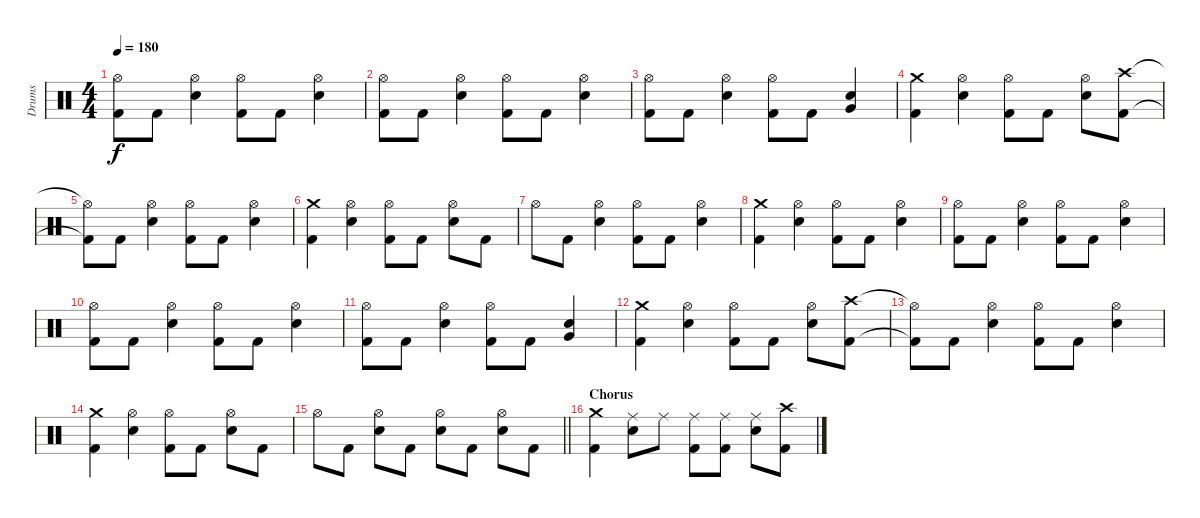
\track ("Drums" "Drums") {instrument percussion}
\staff {score}
\articulation defaults
\ts (4 4)
\tempo 180
\clef neutral
\ks c
("Hi-Hat (open)" "Kick (hit) 2").8{dy f} "Kick (hit) 2".8 ("Hi-Hat (open)" "Electric Snare (hit)").4 ("Hi-Hat (open)" "Kick (hit) 2").8 "Kick (hit) 2".8 ("Hi-Hat (open)" "Electric Snare (hit)").4 |
("Hi-Hat (open)" "Kick (hit) 2").8 "Kick (hit) 2".8 ("Hi-Hat (open)" "Electric Snare (hit)").4 ("Hi-Hat (open)" "Kick (hit) 2").8 "Kick (hit) 2".8 ("Hi-Hat (open)" "Electric Snare (hit)").4 |
("Hi-Hat (open)" "Kick (hit) 2").8 "Kick (hit) 2".8 ("Hi-Hat (open)" "Electric Snare (hit)").4 ("Hi-Hat (open)" "Kick (hit) 2").8 "Kick (hit) 2".8 ("Very Low Tom (hit)" "Electric Snare (hit)").4 |
("Crash medium (hit)" "Kick (hit) 2").4 ("Hi-Hat (open)" "Electric Snare (hit)").4 ("Hi-Hat (open)" "Kick (hit) 2").8 "Kick (hit) 2".8 ("Hi-Hat (open)" "Electric Snare (hit)").8 ("Crash high (hit)" "Kick (hit) 2").8 |
("Hi-Hat (open)"{t} "Kick (hit) 2"{t}).8 "Kick (hit) 2".8 ("Hi-Hat (open)" "Electric Snare (hit)").4 ("Hi-Hat (open)" "Kick (hit) 2").8 "Kick (hit) 2".8 ("Hi-Hat (open)" "Electric Snare (hit)").4 |
("Crash medium (hit)" "Kick (hit) 2").4 ("Hi-Hat (open)" "Electric Snare (hit)").4 ("Hi-Hat (open)" "Kick (hit) 2").8 "Kick (hit) 2".8 ("Hi-Hat (open)" "Electric Snare (hit)").8 "Kick (hit) 2".8 |
"Hi-Hat (open)".8 "Kick (hit) 2".8 ("Hi-Hat (open)" "Electric Snare (hit)").4 ("Hi-Hat (open)" "Kick (hit) 2").8 "Kick (hit) 2".8 ("Hi-Hat (open)" "Electric Snare (hit)").4 |
("Crash medium (hit)" "Kick (hit) 2").4 ("Hi-Hat (open)" "Electric Snare (hit)").4 ("Hi-Hat (open)" "Kick (hit) 2").8 "Kick (hit) 2".8 ("Hi-Hat (open)" "Electric Snare (hit)").4 |
("Hi-Hat (open)" "Kick (hit) 2").8 "Kick (hit) 2".8 ("Hi-Hat (open)" "Electric Snare (hit)").4 ("Hi-Hat (open)" "Kick (hit) 2").8 "Kick (hit) 2".8 ("Hi-Hat (open)" "Electric Snare (hit)").4 |
("Hi-Hat (open)" "Kick (hit) 2").8 "Kick (hit) 2".8 ("Hi-Hat (open)" "Electric Snare (hit)").4 ("Hi-Hat (open)" "Kick (hit) 2").8 "Kick (hit) 2".8 ("Hi-Hat (open)" "Electric Snare (hit)").4 |
("Hi-Hat (open)" "Kick (hit) 2").8 "Kick (hit) 2".8 ("Hi-Hat (open)" "Electric Snare (hit)").4 ("Hi-Hat (open)" "Kick (hit) 2").8 "Kick (hit) 2".8 ("Very Low Tom (hit)" "Electric Snare (hit)").4 |
("Crash medium (hit)" "Kick (hit) 2").4 ("Hi-Hat (open)" "Electric Snare (hit)").4 ("Hi-Hat (open)" "Kick (hit) 2").8 "Kick (hit) 2".8 ("Hi-Hat (open)" "Electric Snare (hit)").8 ("Crash high (hit)" "Kick (hit) 2").8 |
("Hi-Hat (open)"{t} "Kick (hit) 2"{t}).8 "Kick (hit) 2".8 ("Hi-Hat (open)" "Electric Snare (hit)").4 ("Hi-Hat (open)" "Kick (hit) 2").8 "Kick (hit) 2".8 ("Hi-Hat (open)" "Electric Snare (hit)").4 |
("Crash medium (hit)" "Kick (hit) 2").4 ("Hi-Hat (open)" "Electric Snare (hit)").4 ("Hi-Hat (open)" "Kick (hit) 2").8 "Kick (hit) 2".8 ("Hi-Hat (open)" "Electric Snare (hit)").8 "Kick (hit) 2".8 |
\barLineRight lightlight "Hi-Hat (open)".8 "Kick (hit) 2".8
("Hi-Hat (open)" "Electric Snare (hit)").8 "Kick (hit) 2".8 ("Hi-Hat (open)" "Electric Snare (hit)").8 "Kick (hit) 2".8 ("Hi-Hat (open)" "Electric Snare (hit)").8 "Kick (hit) 2".8 |
\section ("" "Chorus")
("Crash medium (hit)" "Kick (hit) 2").4 ("Ride (middle)" "Electric Snare (hit)").8 "Ride (middle)".8 ("Ride (middle)" "Kick (hit) 2").8 ("Ride (middle)" "Kick (hit) 2").8 ("Ride (middle)" "Electric Snare (hit)").8 ("Crash high (hit)" "Kick (hit) 2").8
